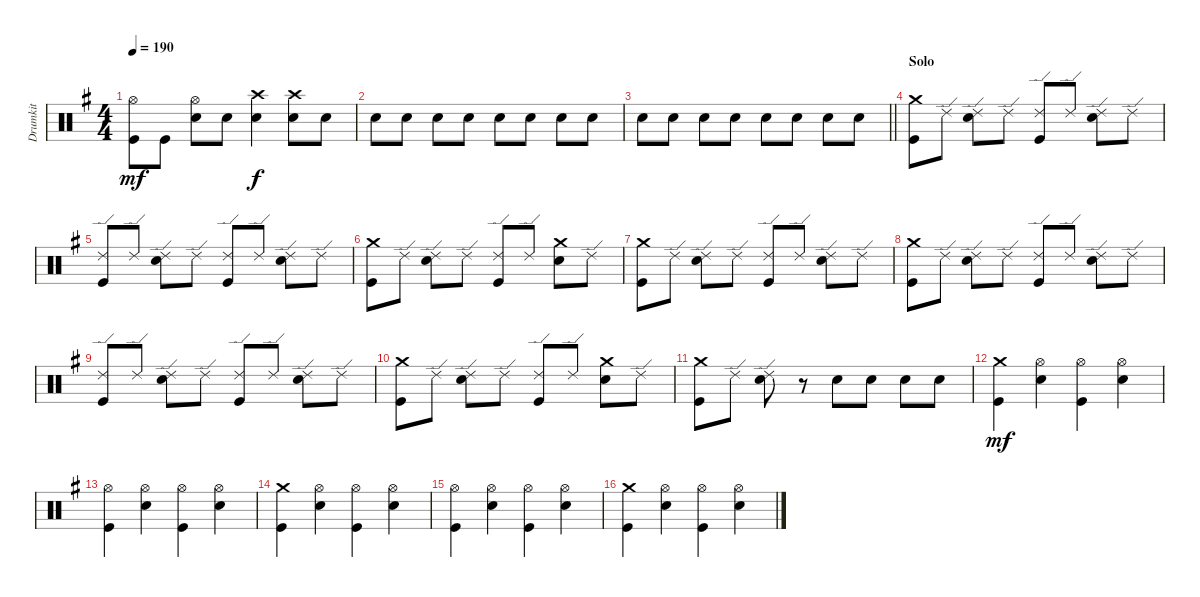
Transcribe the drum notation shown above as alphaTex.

\track ("Drumkit" "Drumkit") {instrument percussion}
\staff {score}
\articulation defaults
\ts (4 4)
\tempo 190
\clef neutral
\ks eminor
("Kick (hit)" "Hi-Hat (open)").8{dy mf} "Kick (hit)".8 ("Snare (hit) 2" "Hi-Hat (open)").8 "Snare (hit) 2".8 ("Snare (hit) 2" "Crash high (hit)").4{dy f} ("Snare (hit) 2" "Crash high (hit)").8 "Snare (hit) 2".8 |
"Snare (hit) 2".8 "Snare (hit) 2".8 "Snare (hit) 2".8 "Snare (hit) 2".8 "Snare (hit) 2".8 "Snare (hit) 2".8 "Snare (hit) 2".8 "Snare (hit) 2".8 |
\barLineRight lightlight "Snare (hit) 2".8 "Snare (hit) 2".8 "Snare (hit) 2".8 "Snare (hit) 2".8 "Snare (hit) 2".8 "Snare (hit) 2".8 "Snare (hit) 2".8 "Snare (hit) 2".8
|
\section ("" "Solo")
("Kick (hit)" "Crash medium (hit)").8 "Ride (edge) 2".8 ("Ride (edge) 2" "Snare (hit) 2").8 "Ride (edge) 2".8 ("Ride (edge) 2" "Kick (hit)").8 "Ride (edge) 2".8 ("Ride (edge) 2" "Snare (hit) 2").8 "Ride (edge) 2".8 |
("Ride (edge) 2" "Kick (hit)").8 "Ride (edge) 2".8 ("Ride (edge) 2" "Snare (hit) 2").8 "Ride (edge) 2".8 ("Ride (edge) 2" "Kick (hit)").8 "Ride (edge) 2".8 ("Ride (edge) 2" "Snare (hit) 2").8 "Ride (edge) 2".8 |
("Kick (hit)" "Crash medium (hit)").8 "Ride (edge) 2".8 ("Ride (edge) 2" "Snare (hit) 2").8 "Ride (edge) 2".8 ("Ride (edge) 2" "Kick (hit)").8 "Ride (edge) 2".8 ("Snare (hit) 2" "Crash medium (hit)").8 "Ride (edge) 2".8 |
("Kick (hit)" "Crash medium (hit)").8 "Ride (edge) 2".8 ("Ride (edge) 2" "Snare (hit) 2").8 "Ride (edge) 2".8 ("Ride (edge) 2" "Kick (hit)").8 "Ride (edge) 2".8 ("Ride (edge) 2" "Snare (hit) 2").8 "Ride (edge) 2".8 |
("Kick (hit)" "Crash medium (hit)").8 "Ride (edge) 2".8 ("Ride (edge) 2" "Snare (hit) 2").8 "Ride (edge) 2".8 ("Ride (edge) 2" "Kick (hit)").8 "Ride (edge) 2".8 ("Ride (edge) 2" "Snare (hit) 2").8 "Ride (edge) 2".8 |
("Ride (edge) 2" "Kick (hit)").8 "Ride (edge) 2".8 ("Ride (edge) 2" "Snare (hit) 2").8 "Ride (edge) 2".8 ("Ride (edge) 2" "Kick (hit)").8 "Ride (edge) 2".8 ("Ride (edge) 2" "Snare (hit) 2").8 "Ride (edge) 2".8 |
("Kick (hit)" "Crash medium (hit)").8 "Ride (edge) 2".8 ("Ride (edge) 2" "Snare (hit) 2").8 "Ride (edge) 2".8 ("Ride (edge) 2" "Kick (hit)").8 "Ride (edge) 2".8 ("Snare (hit) 2" "Crash medium (hit)").8 "Ride (edge) 2".8 |
("Kick (hit)" "Crash medium (hit)").8 "Ride (edge) 2".8 ("Ride (edge) 2" "Snare (hit) 2").8 r.8 "Snare (hit) 2".8 "Snare (hit) 2".8 "Snare (hit) 2".8 "Snare (hit) 2".8 |
("Kick (hit)" "Crash medium (hit)").4{dy mf} ("Snare (hit) 2" "Hi-Hat (open)").4 ("Kick (hit)" "Hi-Hat (open)").4 ("Snare (hit) 2" "Hi-Hat (open)").4 |
("Kick (hit)" "Hi-Hat (open)").4 ("Snare (hit) 2" "Hi-Hat (open)").4 ("Kick (hit)" "Hi-Hat (open)").4 ("Snare (hit) 2" "Hi-Hat (open)").4 |
("Kick (hit)" "Crash medium (hit)").4 ("Snare (hit) 2" "Hi-Hat (open)").4 ("Kick (hit)" "Hi-Hat (open)").4 ("Snare (hit) 2" "Hi-Hat (open)").4 |
("Kick (hit)" "Hi-Hat (open)").4 ("Snare (hit) 2" "Hi-Hat (open)").4 ("Kick (hit)" "Hi-Hat (open)").4 ("Snare (hit) 2" "Hi-Hat (open)").4 |
("Kick (hit)" "Crash medium (hit)").4 ("Snare (hit) 2" "Hi-Hat (open)").4 ("Kick (hit)" "Hi-Hat (open)").4 ("Snare (hit) 2" "Hi-Hat (open)").4
